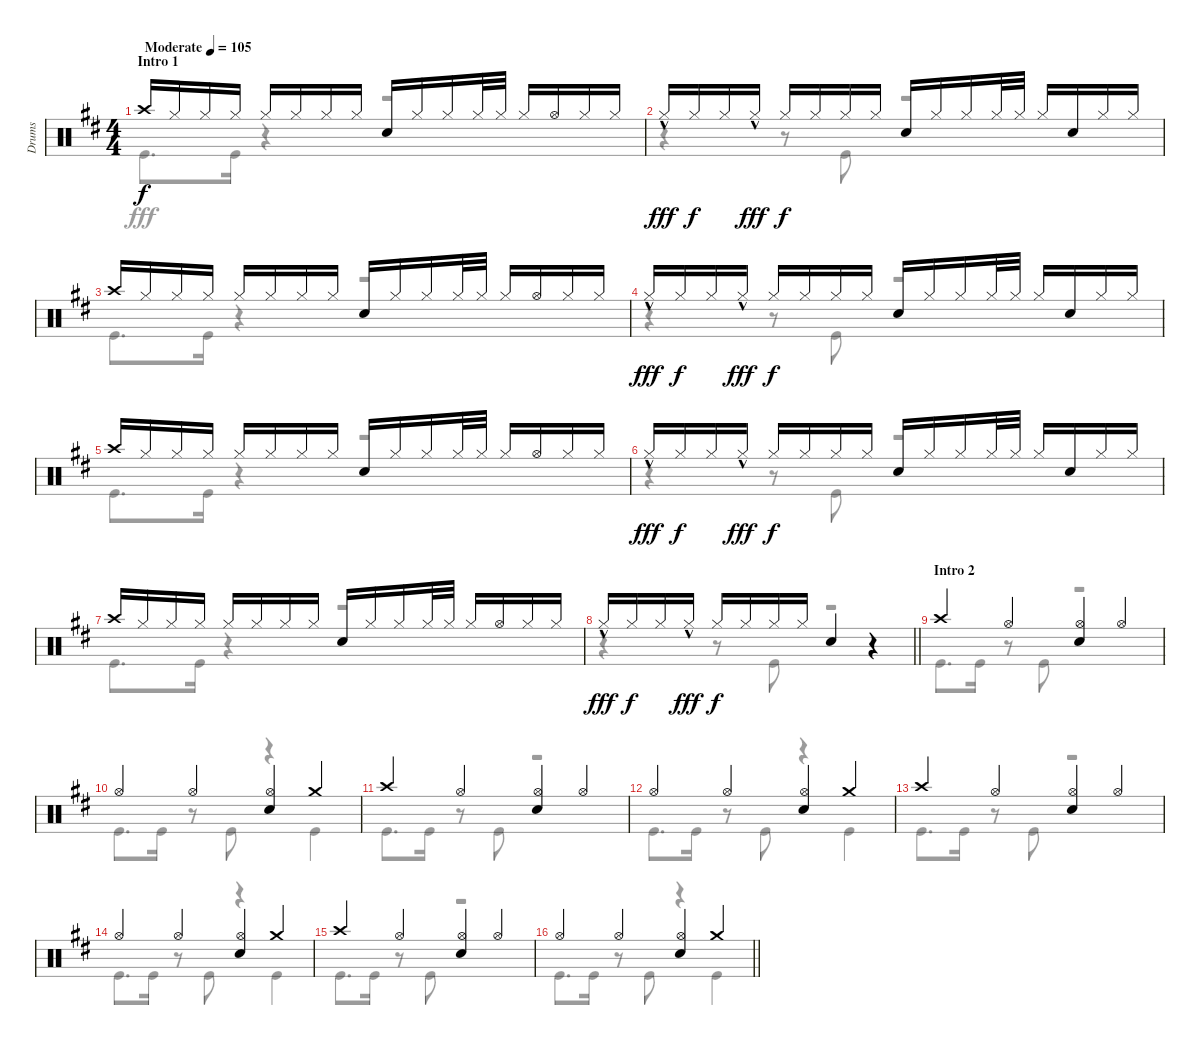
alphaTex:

\track ("Drums" "Drums") {instrument percussion}
\staff {score}
\articulation defaults
\voice
\ts (4 4)
\section ("" "Intro 1")
\tempo (105 "Moderate")
\clef neutral
\ks d "Crash high (hit)".16{dy f} "Hi-Hat (closed)".16 "Hi-Hat (closed)".16 "Hi-Hat (closed)".16 "Hi-Hat (closed)".16 "Hi-Hat (closed)".16 "Hi-Hat (closed)".16 "Hi-Hat (closed)".16 "Snare (hit) 2".16 "Hi-Hat (closed)".16 "Hi-Hat (closed)".16 "Hi-Hat (closed)".32 "Hi-Hat (closed)".32 "Hi-Hat (closed)".16 "Hi-Hat (open)".16 "Hi-Hat (closed)".16 "Hi-Hat (closed)".16
|
"Hi-Hat (closed)"{hac}.16{dy fff} "Hi-Hat (closed)".16{dy f} "Hi-Hat (closed)".16 "Hi-Hat (closed)"{hac}.16{dy fff} "Hi-Hat (closed)".16{dy f} "Hi-Hat (closed)".16 "Hi-Hat (closed)".16 "Hi-Hat (closed)".16 "Snare (hit) 2".16 "Hi-Hat (closed)".16 "Hi-Hat (closed)".16 "Hi-Hat (closed)".32 "Hi-Hat (closed)".32 "Hi-Hat (closed)".16 "Snare (hit) 2".16 "Hi-Hat (closed)".16 "Hi-Hat (closed)".16 |
"Crash high (hit)".16 "Hi-Hat (closed)".16 "Hi-Hat (closed)".16 "Hi-Hat (closed)".16 "Hi-Hat (closed)".16 "Hi-Hat (closed)".16 "Hi-Hat (closed)".16 "Hi-Hat (closed)".16 "Snare (hit) 2".16 "Hi-Hat (closed)".16 "Hi-Hat (closed)".16 "Hi-Hat (closed)".32 "Hi-Hat (closed)".32 "Hi-Hat (closed)".16 "Hi-Hat (open)".16 "Hi-Hat (closed)".16 "Hi-Hat (closed)".16 |
"Hi-Hat (closed)"{hac}.16{dy fff} "Hi-Hat (closed)".16{dy f} "Hi-Hat (closed)".16 "Hi-Hat (closed)"{hac}.16{dy fff} "Hi-Hat (closed)".16{dy f} "Hi-Hat (closed)".16 "Hi-Hat (closed)".16 "Hi-Hat (closed)".16 "Snare (hit) 2".16 "Hi-Hat (closed)".16 "Hi-Hat (closed)".16 "Hi-Hat (closed)".32 "Hi-Hat (closed)".32 "Hi-Hat (closed)".16 "Snare (hit) 2".16 "Hi-Hat (closed)".16 "Hi-Hat (closed)".16 |
"Crash high (hit)".16 "Hi-Hat (closed)".16 "Hi-Hat (closed)".16 "Hi-Hat (closed)".16 "Hi-Hat (closed)".16 "Hi-Hat (closed)".16 "Hi-Hat (closed)".16 "Hi-Hat (closed)".16 "Snare (hit) 2".16 "Hi-Hat (closed)".16 "Hi-Hat (closed)".16 "Hi-Hat (closed)".32 "Hi-Hat (closed)".32 "Hi-Hat (closed)".16 "Hi-Hat (open)".16 "Hi-Hat (closed)".16 "Hi-Hat (closed)".16 |
"Hi-Hat (closed)"{hac}.16{dy fff} "Hi-Hat (closed)".16{dy f} "Hi-Hat (closed)".16 "Hi-Hat (closed)"{hac}.16{dy fff} "Hi-Hat (closed)".16{dy f} "Hi-Hat (closed)".16 "Hi-Hat (closed)".16 "Hi-Hat (closed)".16 "Snare (hit) 2".16 "Hi-Hat (closed)".16 "Hi-Hat (closed)".16 "Hi-Hat (closed)".32 "Hi-Hat (closed)".32 "Hi-Hat (closed)".16 "Snare (hit) 2".16 "Hi-Hat (closed)".16 "Hi-Hat (closed)".16 |
"Crash high (hit)".16 "Hi-Hat (closed)".16 "Hi-Hat (closed)".16 "Hi-Hat (closed)".16 "Hi-Hat (closed)".16 "Hi-Hat (closed)".16 "Hi-Hat (closed)".16 "Hi-Hat (closed)".16 "Snare (hit) 2".16 "Hi-Hat (closed)".16 "Hi-Hat (closed)".16 "Hi-Hat (closed)".32 "Hi-Hat (closed)".32 "Hi-Hat (closed)".16 "Hi-Hat (open)".16 "Hi-Hat (closed)".16 "Hi-Hat (closed)".16 |
\barLineRight lightlight "Hi-Hat (closed)"{hac}.16{dy fff} "Hi-Hat (closed)".16{dy f} "Hi-Hat (closed)".16 "Hi-Hat (closed)"{hac}.16{dy fff} "Hi-Hat (closed)".16{dy f} "Hi-Hat (closed)".16 "Hi-Hat (closed)".16 "Hi-Hat (closed)".16 "Snare (hit) 2".4
r.4 |
\section ("" "Intro 2")
"Crash high (hit)".4 "Hi-Hat (open)".4 ("Hi-Hat (open)" "Snare (hit) 2").4 "Hi-Hat (open)".4 |
"Hi-Hat (open)".4 "Hi-Hat (open)".4 ("Hi-Hat (open)" "Snare (hit) 2").4 "Crash medium (hit)".4 |
"Crash high (hit)".4 "Hi-Hat (open)".4 ("Hi-Hat (open)" "Snare (hit) 2").4 "Hi-Hat (open)".4 |
"Hi-Hat (open)".4 "Hi-Hat (open)".4 ("Hi-Hat (open)" "Snare (hit) 2").4 "Crash medium (hit)".4 |
"Crash high (hit)".4 "Hi-Hat (open)".4 ("Hi-Hat (open)" "Snare (hit) 2").4 "Hi-Hat (open)".4 |
"Hi-Hat (open)".4 "Hi-Hat (open)".4 ("Hi-Hat (open)" "Snare (hit) 2").4 "Crash medium (hit)".4 |
"Crash high (hit)".4 "Hi-Hat (open)".4 ("Hi-Hat (open)" "Snare (hit) 2").4 "Hi-Hat (open)".4 |
\barLineRight lightlight "Hi-Hat (open)".4 "Hi-Hat (open)".4
("Hi-Hat (open)" "Snare (hit) 2").4 "Crash medium (hit)".4
\voice
\clef neutral
\ottava regular
\simile none
\ks d "Kick (hit)".8{d dy fff} "Kick (hit)".16
r.4 r.2 |
r.4 r.8 "Kick (hit)".8 r.2 |
"Kick (hit)".8{d} "Kick (hit)".16 r.4 r.2 |
r.4 r.8 "Kick (hit)".8 r.2 |
"Kick (hit)".8{d} "Kick (hit)".16 r.4 r.2 |
r.4 r.8 "Kick (hit)".8 r.2 |
"Kick (hit)".8{d} "Kick (hit)".16 r.4 r.2 |
\barLineRight lightlight
r.4 r.8 "Kick (hit)".8 r.2 |
"Kick (hit)".8{d} "Kick (hit)".16 r.8 "Kick (hit)".8 r.2 |
"Kick (hit)".8{d} "Kick (hit)".16 r.8 "Kick (hit)".8 r.4 "Kick (hit)".4 |
"Kick (hit)".8{d} "Kick (hit)".16 r.8 "Kick (hit)".8 r.2 |
"Kick (hit)".8{d} "Kick (hit)".16 r.8 "Kick (hit)".8 r.4 "Kick (hit)".4 |
"Kick (hit)".8{d} "Kick (hit)".16 r.8 "Kick (hit)".8 r.2 |
"Kick (hit)".8{d} "Kick (hit)".16 r.8 "Kick (hit)".8 r.4 "Kick (hit)".4 |
"Kick (hit)".8{d} "Kick (hit)".16 r.8 "Kick (hit)".8 r.2 |
\barLineRight lightlight "Kick (hit)".8{d} "Kick (hit)".16
r.8 "Kick (hit)".8 r.4 "Kick (hit)".4
